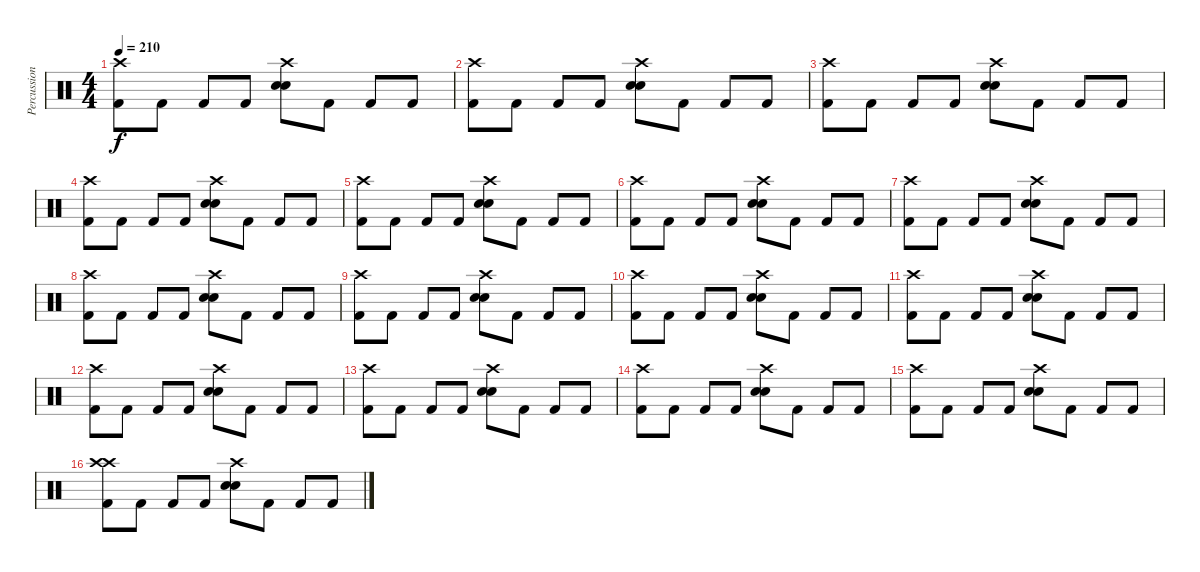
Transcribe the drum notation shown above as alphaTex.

\track ("Percussion" "Percussion") {instrument percussion}
\staff {score}
\articulation defaults
\ts (4 4)
\tempo 210
\clef neutral
\ks c
("Kick (hit) 2" "Crash high (hit)").8{dy f} "Kick (hit) 2".8 "Kick (hit) 2".8 "Kick (hit) 2".8 ("Snare (hit) 2" "Electric Snare (hit)" "Crash high (hit)").8 "Kick (hit) 2".8 "Kick (hit) 2".8 "Kick (hit) 2".8 |
("Kick (hit) 2" "Crash high (hit)").8 "Kick (hit) 2".8 "Kick (hit) 2".8 "Kick (hit) 2".8 ("Snare (hit) 2" "Electric Snare (hit)" "Crash high (hit)").8 "Kick (hit) 2".8 "Kick (hit) 2".8 "Kick (hit) 2".8 |
("Kick (hit) 2" "Crash high (hit)").8 "Kick (hit) 2".8 "Kick (hit) 2".8 "Kick (hit) 2".8 ("Snare (hit) 2" "Electric Snare (hit)" "Crash high (hit)").8 "Kick (hit) 2".8 "Kick (hit) 2".8 "Kick (hit) 2".8 |
("Kick (hit) 2" "Crash high (hit)").8 "Kick (hit) 2".8 "Kick (hit) 2".8 "Kick (hit) 2".8 ("Snare (hit) 2" "Electric Snare (hit)" "Crash high (hit)").8 "Kick (hit) 2".8 "Kick (hit) 2".8 "Kick (hit) 2".8 |
("Kick (hit) 2" "Crash high (hit)").8 "Kick (hit) 2".8 "Kick (hit) 2".8 "Kick (hit) 2".8 ("Snare (hit) 2" "Electric Snare (hit)" "Crash high (hit)").8 "Kick (hit) 2".8 "Kick (hit) 2".8 "Kick (hit) 2".8 |
("Kick (hit) 2" "Crash high (hit)").8 "Kick (hit) 2".8 "Kick (hit) 2".8 "Kick (hit) 2".8 ("Snare (hit) 2" "Electric Snare (hit)" "Crash high (hit)").8 "Kick (hit) 2".8 "Kick (hit) 2".8 "Kick (hit) 2".8 |
("Kick (hit) 2" "Crash high (hit)").8 "Kick (hit) 2".8 "Kick (hit) 2".8 "Kick (hit) 2".8 ("Snare (hit) 2" "Electric Snare (hit)" "Crash high (hit)").8 "Kick (hit) 2".8 "Kick (hit) 2".8 "Kick (hit) 2".8 |
("Kick (hit) 2" "Crash high (hit)").8 "Kick (hit) 2".8 "Kick (hit) 2".8 "Kick (hit) 2".8 ("Snare (hit) 2" "Electric Snare (hit)" "Crash high (hit)").8 "Kick (hit) 2".8 "Kick (hit) 2".8 "Kick (hit) 2".8 |
("Kick (hit) 2" "Crash high (hit)").8 "Kick (hit) 2".8 "Kick (hit) 2".8 "Kick (hit) 2".8 ("Snare (hit) 2" "Electric Snare (hit)" "Crash high (hit)").8 "Kick (hit) 2".8 "Kick (hit) 2".8 "Kick (hit) 2".8 |
("Kick (hit) 2" "Crash high (hit)").8 "Kick (hit) 2".8 "Kick (hit) 2".8 "Kick (hit) 2".8 ("Snare (hit) 2" "Electric Snare (hit)" "Crash high (hit)").8 "Kick (hit) 2".8 "Kick (hit) 2".8 "Kick (hit) 2".8 |
("Kick (hit) 2" "Crash high (hit)").8 "Kick (hit) 2".8 "Kick (hit) 2".8 "Kick (hit) 2".8 ("Snare (hit) 2" "Electric Snare (hit)" "Crash high (hit)").8 "Kick (hit) 2".8 "Kick (hit) 2".8 "Kick (hit) 2".8 |
("Kick (hit) 2" "Crash high (hit)").8 "Kick (hit) 2".8 "Kick (hit) 2".8 "Kick (hit) 2".8 ("Snare (hit) 2" "Electric Snare (hit)" "Crash high (hit)").8 "Kick (hit) 2".8 "Kick (hit) 2".8 "Kick (hit) 2".8 |
("Kick (hit) 2" "Crash high (hit)").8 "Kick (hit) 2".8 "Kick (hit) 2".8 "Kick (hit) 2".8 ("Snare (hit) 2" "Electric Snare (hit)" "Crash high (hit)").8 "Kick (hit) 2".8 "Kick (hit) 2".8 "Kick (hit) 2".8 |
("Kick (hit) 2" "Crash high (hit)").8 "Kick (hit) 2".8 "Kick (hit) 2".8 "Kick (hit) 2".8 ("Snare (hit) 2" "Electric Snare (hit)" "Crash high (hit)").8 "Kick (hit) 2".8 "Kick (hit) 2".8 "Kick (hit) 2".8 |
("Kick (hit) 2" "Crash high (hit)").8 "Kick (hit) 2".8 "Kick (hit) 2".8 "Kick (hit) 2".8 ("Snare (hit) 2" "Electric Snare (hit)" "Crash high (hit)").8 "Kick (hit) 2".8 "Kick (hit) 2".8 "Kick (hit) 2".8 |
("Kick (hit) 2" "Crash high (hit)" "Crash high (hit)").8 "Kick (hit) 2".8 "Kick (hit) 2".8 "Kick (hit) 2".8 ("Snare (hit) 2" "Electric Snare (hit)" "Crash high (hit)").8 "Kick (hit) 2".8 "Kick (hit) 2".8 "Kick (hit) 2".8
